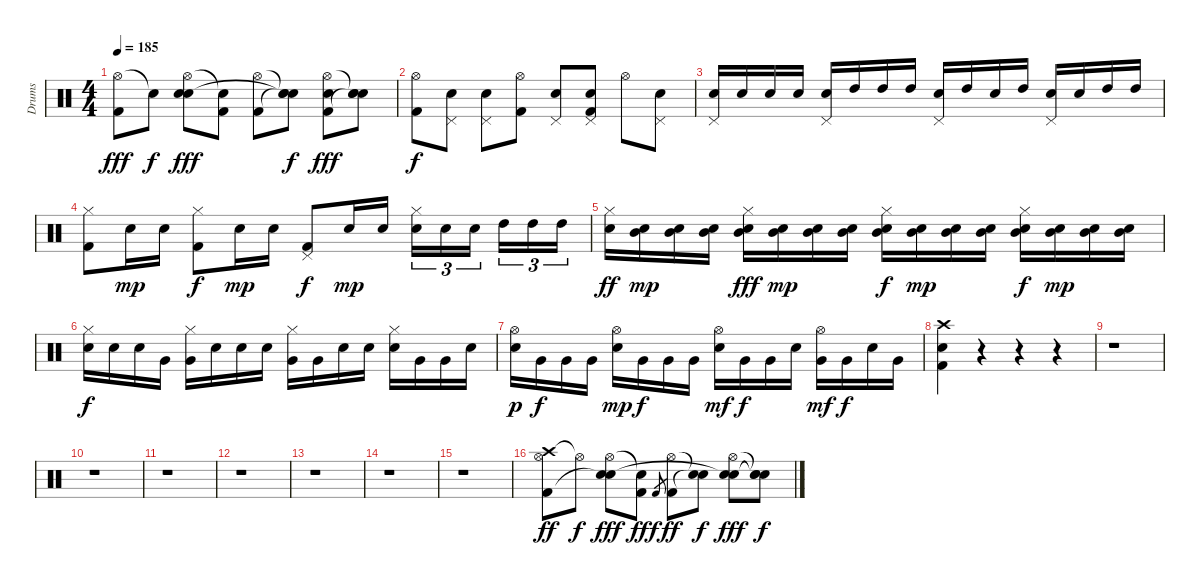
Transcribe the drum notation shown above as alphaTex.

\track ("Drums" "Drums") {instrument percussion}
\staff {score}
\articulation defaults
\ts (4 4)
\tempo 185
\clef neutral
\ks c
("Hi-Hat (open)" "Kick (hit) 2").8{dy fff} "Snare (hit)"{t}.8{dy f} ("Hi-Hat (open)" "Electric Snare (hit)" "Snare (hit)"{t}).8{dy fff} ("Snare (hit)"{t} "Kick (hit) 2").8 ("Hi-Hat (open)" "Kick (hit) 2").8 ("Snare (hit)"{t} "Snare (hit)"{t} "Snare (hit)"{t}).8{dy f} ("Hi-Hat (open)" "Electric Snare (hit)" "Kick (hit) 2").8{dy fff} ("Snare (hit)"{t} "Electric Snare (hit)" "Snare (hit)"{t}).8 |
("Hi-Hat (open)" "Kick (hit) 2").8{dy f} ("Pedal Hi-Hat (hit)" "Electric Snare (hit)").8 ("Pedal Hi-Hat (hit)" "Electric Snare (hit)").8 ("Hi-Hat (open)" "Kick (hit) 2").8 ("Pedal Hi-Hat (hit)" "Electric Snare (hit)").8 ("Pedal Hi-Hat (hit)" "Electric Snare (hit)" "Kick (hit) 2").8 "Hi-Hat (open)".8 ("Pedal Hi-Hat (hit)" "Electric Snare (hit)").8 |
("Pedal Hi-Hat (hit)" "Electric Snare (hit)").16 "Electric Snare (hit)".16 "Electric Snare (hit)".16 "Electric Snare (hit)".16 ("Pedal Hi-Hat (hit)" "Electric Snare (hit)").16 "High Tom (hit)".16 "High Tom (hit)".16 "High Tom (hit)".16 ("Pedal Hi-Hat (hit)" "Electric Snare (hit)").16 "High Tom (hit)".16 "Electric Snare (hit)".16 "High Tom (hit)".16 ("Pedal Hi-Hat (hit)" "Electric Snare (hit)").16 "Electric Snare (hit)".16 "High Tom (hit)".16 "High Tom (hit)".16 |
("Hi-Hat (closed)" "Kick (hit) 2").8 "Electric Snare (hit)".16{dy mp} "Electric Snare (hit)".16 ("Hi-Hat (closed)" "Kick (hit) 2").8{dy f} "Electric Snare (hit)".16{dy mp} "Electric Snare (hit)".16 ("Pedal Hi-Hat (hit)" "Kick (hit) 2").8{dy f} "Electric Snare (hit)".16{dy mp} "Electric Snare (hit)".16 ("Hi-Hat (closed)" "Electric Snare (hit)").16{tu (3 2)} "Electric Snare (hit)".16{tu (3 2)} "Electric Snare (hit)".16{tu (3 2) beam splitsecondary} "High Tom (hit)".16{tu (3 2)} "High Tom (hit)".16{tu (3 2)} "High Tom (hit)".16{tu (3 2)} |
("Hi-Hat (closed)" "Electric Snare (hit)").16{dy ff} ("Electric Snare (hit)" "Mid Tom (hit)").16{dy mp} ("Electric Snare (hit)" "Mid Tom (hit)").16 ("Electric Snare (hit)" "Mid Tom (hit)").16 ("Hi-Hat (closed)" "Electric Snare (hit)" "Mid Tom (hit)").16{dy fff} ("Electric Snare (hit)" "Mid Tom (hit)").16{dy mp} ("Electric Snare (hit)" "Mid Tom (hit)").16 ("Electric Snare (hit)" "Mid Tom (hit)").16 ("Hi-Hat (closed)" "Electric Snare (hit)" "Mid Tom (hit)").16{dy f} ("Electric Snare (hit)" "Mid Tom (hit)").16{dy mp} ("Electric Snare (hit)" "Mid Tom (hit)").16 ("Electric Snare (hit)" "Mid Tom (hit)").16 ("Hi-Hat (closed)" "Electric Snare (hit)" "Mid Tom (hit)").16{dy f} ("Electric Snare (hit)" "Mid Tom (hit)").16{dy mp} ("Electric Snare (hit)" "Mid Tom (hit)").16 ("Electric Snare (hit)" "Mid Tom (hit)").16 |
("Hi-Hat (closed)" "Electric Snare (hit)").16{dy f} "Electric Snare (hit)".16 "Electric Snare (hit)".16 "Very Low Tom (hit)".16 ("Hi-Hat (closed)" "Very Low Tom (hit)").16 "Electric Snare (hit)".16 "Electric Snare (hit)".16 "Electric Snare (hit)".16 ("Hi-Hat (closed)" "Very Low Tom (hit)").16 "Very Low Tom (hit)".16 "Electric Snare (hit)".16 "Electric Snare (hit)".16 ("Hi-Hat (closed)" "Electric Snare (hit)").16 "Very Low Tom (hit)".16 "Very Low Tom (hit)".16 "Electric Snare (hit)".16 |
("Hi-Hat (open)" "Electric Snare (hit)").16{dy p} "Very Low Tom (hit)".16{dy f} "Very Low Tom (hit)".16 "Very Low Tom (hit)".16 ("Hi-Hat (open)" "Electric Snare (hit)").16{dy mp} "Very Low Tom (hit)".16{dy f} "Very Low Tom (hit)".16 "Very Low Tom (hit)".16 ("Hi-Hat (open)" "Electric Snare (hit)").16{dy mf} "Very Low Tom (hit)".16{dy f} "Very Low Tom (hit)".16 "Electric Snare (hit)".16 ("Hi-Hat (open)" "Very Low Tom (hit)").16{dy mf} "Very Low Tom (hit)".16{dy f} "Electric Snare (hit)".16 "Very Low Tom (hit)".16 |
("Crash high (hit)" "Electric Snare (hit)" "Kick (hit) 2").4 r.4 r.4 r.4 |
r.1 |
r.1 |
r.1 |
r.1 |
r.1 |
r.1 |
r.1 |
("Crash high (hit)" "Hi-Hat (open)" "Kick (hit) 2").8{dy ff} "Hi-Hat (open)"{t}.8{dy f} ("Hi-Hat (open)" "Electric Snare (hit)" "Snare (hit)"{t}).8{dy fff} ("Snare (hit)"{t} "Kick (hit) 2").8{dy ff} "Kick (hit) 2".8{gr dy f} ("Hi-Hat (open)" "Kick (hit) 2").8{dy ff} ("Snare (hit)"{t} "Snare (hit)"{t}).8{dy f} ("Hi-Hat (open)" "Electric Snare (hit)" "Snare (hit)"{t}).8{dy fff} ("Snare (hit)"{t} "Snare (hit)"{t} "Snare (hit)"{t}).8{dy f}
